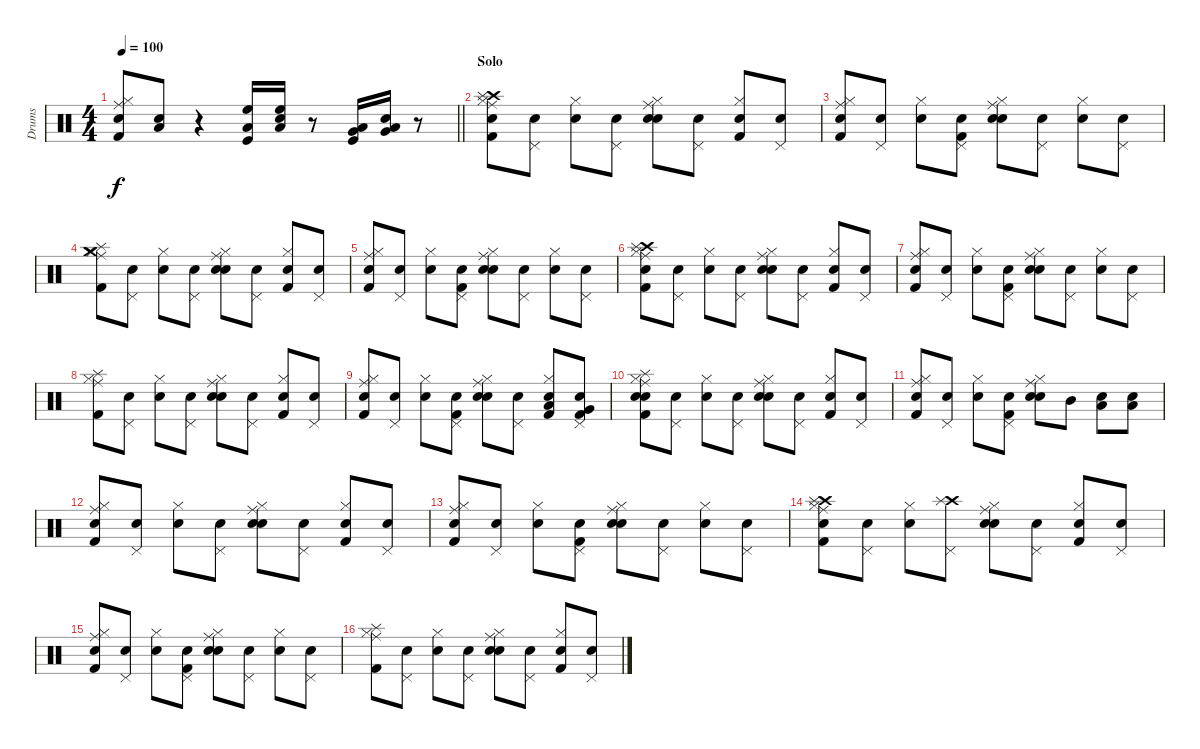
\track ("Drums" "Drums") {instrument percussion}
\staff {score}
\articulation defaults
\ts (4 4)
\tempo 100
\clef neutral
\barLineRight lightlight
\ks c
("Snare (hit)" "Ride (middle)" "Hi-Hat (closed)" "Kick (hit) 2").8{dy f} ("Snare (hit)" "Low Tom (hit)").8 r.4 ("High Floor Tom (hit)" "Kick (hit)" "Low Tom (hit)").16 ("Snare (hit)" "High Floor Tom (hit)" "Low Tom (hit)").16 r.8 ("Very Low Tom (hit)" "Kick (hit)" "Low Tom (hit)").16 ("Snare (hit)" "Very Low Tom (hit)" "Low Tom (hit)").16 r.8 |
\section ("" "Solo")
("Ride (middle)" "Hi-Hat (closed)" "Kick (hit) 2" "Snare (hit) 2" "Crash high (hit)" "Splash (hit)").8 ("Snare (hit)" "Pedal Hi-Hat (hit)").8 ("Snare (hit)" "Hi-Hat (closed)").8 ("Snare (hit)" "Pedal Hi-Hat (hit)").8 ("Snare (hit)" "Ride (middle)" "Hi-Hat (closed)" "Snare (hit) 2").8 ("Snare (hit)" "Pedal Hi-Hat (hit)").8 ("Snare (hit)" "Hi-Hat (closed)" "Kick (hit) 2").8 ("Snare (hit)" "Pedal Hi-Hat (hit)").8 |
("Snare (hit)" "Ride (middle)" "Hi-Hat (closed)" "Kick (hit) 2").8 ("Snare (hit)" "Pedal Hi-Hat (hit)").8 ("Snare (hit)" "Hi-Hat (closed)").8 ("Snare (hit)" "Pedal Hi-Hat (hit)" "Kick (hit) 2").8 ("Snare (hit)" "Ride (middle)" "Hi-Hat (closed)" "Snare (hit) 2").8 ("Snare (hit)" "Pedal Hi-Hat (hit)").8 ("Snare (hit)" "Hi-Hat (closed)").8 ("Snare (hit)" "Pedal Hi-Hat (hit)").8 |
("Crash medium (hit)" "Splash (hit)" "Kick (hit) 2" "Ride (middle)" "Hi-Hat (closed)").8 ("Snare (hit)" "Pedal Hi-Hat (hit)").8 ("Snare (hit)" "Hi-Hat (closed)").8 ("Snare (hit)" "Pedal Hi-Hat (hit)").8 ("Snare (hit)" "Ride (middle)" "Hi-Hat (closed)" "Snare (hit) 2").8 ("Snare (hit)" "Pedal Hi-Hat (hit)").8 ("Snare (hit)" "Hi-Hat (closed)" "Kick (hit) 2").8 ("Snare (hit)" "Pedal Hi-Hat (hit)").8 |
("Snare (hit)" "Ride (middle)" "Hi-Hat (closed)" "Kick (hit) 2").8 ("Snare (hit)" "Pedal Hi-Hat (hit)").8 ("Snare (hit)" "Hi-Hat (closed)").8 ("Snare (hit)" "Pedal Hi-Hat (hit)" "Kick (hit) 2").8 ("Snare (hit)" "Ride (middle)" "Hi-Hat (closed)" "Snare (hit) 2").8 ("Snare (hit)" "Pedal Hi-Hat (hit)").8 ("Snare (hit)" "Hi-Hat (closed)").8 ("Snare (hit)" "Pedal Hi-Hat (hit)").8 |
("Snare (hit)" "Hi-Hat (closed)" "Ride (middle)" "Kick (hit) 2" "Crash high (hit)" "Splash (hit)").8 ("Snare (hit)" "Pedal Hi-Hat (hit)").8 ("Snare (hit)" "Hi-Hat (closed)").8 ("Snare (hit)" "Pedal Hi-Hat (hit)").8 ("Snare (hit)" "Ride (middle)" "Hi-Hat (closed)" "Snare (hit) 2").8 ("Snare (hit)" "Pedal Hi-Hat (hit)").8 ("Snare (hit)" "Hi-Hat (closed)" "Kick (hit) 2").8 ("Snare (hit)" "Pedal Hi-Hat (hit)").8 |
("Snare (hit)" "Ride (middle)" "Hi-Hat (closed)" "Kick (hit) 2").8 ("Snare (hit)" "Pedal Hi-Hat (hit)").8 ("Snare (hit)" "Hi-Hat (closed)").8 ("Snare (hit)" "Pedal Hi-Hat (hit)" "Kick (hit) 2").8 ("Snare (hit)" "Ride (middle)" "Hi-Hat (closed)" "Snare (hit) 2").8 ("Snare (hit)" "Pedal Hi-Hat (hit)").8 ("Snare (hit)" "Hi-Hat (closed)").8 ("Snare (hit)" "Pedal Hi-Hat (hit)").8 |
("Splash (hit)" "Kick (hit) 2" "Ride (middle)" "Hi-Hat (closed)").8 ("Snare (hit)" "Pedal Hi-Hat (hit)").8 ("Snare (hit)" "Hi-Hat (closed)").8 ("Snare (hit)" "Pedal Hi-Hat (hit)").8 ("Snare (hit)" "Ride (middle)" "Hi-Hat (closed)" "Snare (hit) 2").8 ("Snare (hit)" "Pedal Hi-Hat (hit)").8 ("Snare (hit)" "Hi-Hat (closed)" "Kick (hit) 2").8 ("Snare (hit)" "Pedal Hi-Hat (hit)").8 |
("Snare (hit)" "Ride (middle)" "Hi-Hat (closed)" "Kick (hit) 2").8 ("Snare (hit)" "Pedal Hi-Hat (hit)").8 ("Snare (hit)" "Hi-Hat (closed)").8 ("Snare (hit)" "Pedal Hi-Hat (hit)" "Kick (hit) 2").8 ("Snare (hit)" "Ride (middle)" "Hi-Hat (closed)" "Snare (hit) 2").8 ("Snare (hit)" "Pedal Hi-Hat (hit)").8 ("Snare (hit)" "Kick (hit) 2" "Low Tom (hit)" "Hi-Hat (closed)").8 ("Snare (hit)" "Very Low Tom (hit)" "Kick (hit) 2" "Pedal Hi-Hat (hit)").8 |
("Snare (hit)" "Ride (middle)" "Hi-Hat (closed)" "Kick (hit) 2" "Snare (hit) 2" "Splash (hit)").8 ("Snare (hit)" "Pedal Hi-Hat (hit)").8 ("Snare (hit)" "Hi-Hat (closed)").8 ("Snare (hit)" "Pedal Hi-Hat (hit)").8 ("Snare (hit)" "Ride (middle)" "Hi-Hat (closed)" "Snare (hit) 2").8 ("Snare (hit)" "Pedal Hi-Hat (hit)").8 ("Snare (hit)" "Hi-Hat (closed)" "Kick (hit) 2").8 ("Snare (hit)" "Pedal Hi-Hat (hit)").8 |
("Snare (hit)" "Ride (middle)" "Hi-Hat (closed)" "Kick (hit) 2").8 ("Snare (hit)" "Pedal Hi-Hat (hit)").8 ("Snare (hit)" "Hi-Hat (closed)").8 ("Snare (hit)" "Pedal Hi-Hat (hit)" "Kick (hit) 2").8 ("Snare (hit)" "Ride (middle)" "Hi-Hat (closed)" "Snare (hit) 2").8 "Mid Tom (hit)".8 ("Snare (hit)" "Low Tom (hit)").8 ("Snare (hit)" "Low Tom (hit)").8 |
("Snare (hit)" "Kick (hit) 2" "Ride (middle)" "Hi-Hat (closed)").8 ("Snare (hit)" "Pedal Hi-Hat (hit)").8 ("Snare (hit)" "Hi-Hat (closed)").8 ("Snare (hit)" "Pedal Hi-Hat (hit)").8 ("Snare (hit)" "Ride (middle)" "Hi-Hat (closed)" "Snare (hit) 2").8 ("Snare (hit)" "Pedal Hi-Hat (hit)").8 ("Snare (hit)" "Hi-Hat (closed)" "Kick (hit) 2").8 ("Snare (hit)" "Pedal Hi-Hat (hit)").8 |
("Snare (hit)" "Ride (middle)" "Hi-Hat (closed)" "Kick (hit) 2").8 ("Snare (hit)" "Pedal Hi-Hat (hit)").8 ("Snare (hit)" "Hi-Hat (closed)").8 ("Snare (hit)" "Pedal Hi-Hat (hit)" "Kick (hit) 2").8 ("Snare (hit)" "Ride (middle)" "Hi-Hat (closed)" "Snare (hit) 2").8 ("Snare (hit)" "Pedal Hi-Hat (hit)").8 ("Snare (hit)" "Hi-Hat (closed)").8 ("Snare (hit)" "Pedal Hi-Hat (hit)").8 |
("Snare (hit)" "Hi-Hat (closed)" "Ride (middle)" "Kick (hit) 2" "Crash high (hit)" "Splash (hit)").8 ("Snare (hit)" "Pedal Hi-Hat (hit)").8 ("Snare (hit)" "Hi-Hat (closed)").8 ("Crash high (hit)" "Splash (hit)" "Pedal Hi-Hat (hit)").8 ("Snare (hit)" "Ride (middle)" "Hi-Hat (closed)" "Snare (hit) 2").8 ("Snare (hit)" "Pedal Hi-Hat (hit)").8 ("Snare (hit)" "Hi-Hat (closed)" "Kick (hit) 2").8 ("Snare (hit)" "Pedal Hi-Hat (hit)").8 |
("Snare (hit)" "Ride (middle)" "Hi-Hat (closed)" "Kick (hit) 2").8 ("Snare (hit)" "Pedal Hi-Hat (hit)").8 ("Snare (hit)" "Hi-Hat (closed)").8 ("Snare (hit)" "Pedal Hi-Hat (hit)" "Kick (hit) 2").8 ("Snare (hit)" "Ride (middle)" "Hi-Hat (closed)" "Snare (hit) 2").8 ("Snare (hit)" "Pedal Hi-Hat (hit)").8 ("Snare (hit)" "Hi-Hat (closed)").8 ("Snare (hit)" "Pedal Hi-Hat (hit)").8 |
("Splash (hit)" "Kick (hit) 2" "Ride (middle)" "Hi-Hat (closed)").8 ("Snare (hit)" "Pedal Hi-Hat (hit)").8 ("Snare (hit)" "Hi-Hat (closed)").8 ("Snare (hit)" "Pedal Hi-Hat (hit)").8 ("Snare (hit)" "Ride (middle)" "Hi-Hat (closed)" "Snare (hit) 2").8 ("Snare (hit)" "Pedal Hi-Hat (hit)").8 ("Snare (hit)" "Hi-Hat (closed)" "Kick (hit) 2").8 ("Snare (hit)" "Pedal Hi-Hat (hit)").8
